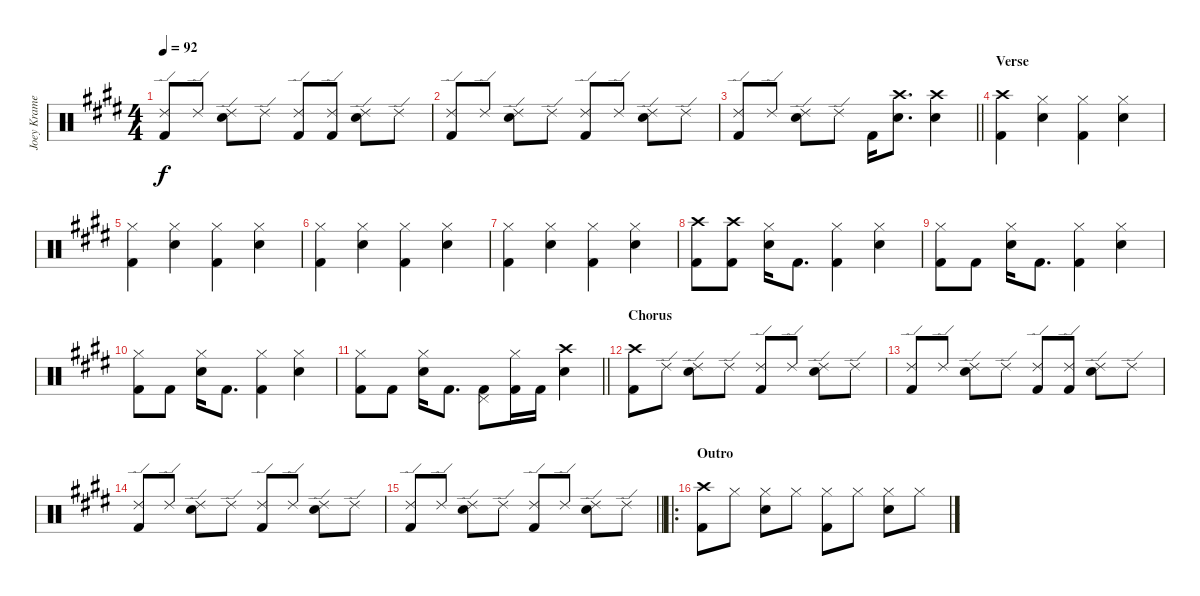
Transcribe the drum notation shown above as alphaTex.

\track ("Joey Kramer" "Joey Krame") {instrument percussion}
\staff {score}
\articulation defaults
\ts (4 4)
\tempo 92
\clef neutral
\ks e
("Ride (edge) 2" "Kick (hit) 2").8{dy f} "Ride (edge) 2".8 ("Ride (edge) 2" "Electric Snare (hit)").8 "Ride (edge) 2".8 ("Ride (edge) 2" "Kick (hit) 2").8 ("Ride (edge) 2" "Kick (hit) 2").8 ("Ride (edge) 2" "Electric Snare (hit)").8 "Ride (edge) 2".8 |
("Ride (edge) 2" "Kick (hit) 2").8 "Ride (edge) 2".8 ("Ride (edge) 2" "Electric Snare (hit)").8 "Ride (edge) 2".8 ("Ride (edge) 2" "Kick (hit) 2").8 "Ride (edge) 2".8 ("Ride (edge) 2" "Electric Snare (hit)").8 "Ride (edge) 2".8 |
\barLineRight lightlight
("Ride (edge) 2" "Kick (hit) 2").8 "Ride (edge) 2".8 ("Ride (edge) 2" "Electric Snare (hit)").8 "Ride (edge) 2".8 "Kick (hit) 2".16 ("Crash high (hit)" "Electric Snare (hit)").8{d} ("Crash high (hit)" "Electric Snare (hit)").4 |
\section ("" "Verse")
("Crash high (hit)" "Kick (hit) 2").4 ("Hi-Hat (closed)" "Electric Snare (hit)").4 ("Hi-Hat (closed)" "Kick (hit) 2").4 ("Hi-Hat (closed)" "Electric Snare (hit)").4 |
("Hi-Hat (closed)" "Kick (hit) 2").4 ("Hi-Hat (closed)" "Electric Snare (hit)").4 ("Hi-Hat (closed)" "Kick (hit) 2").4 ("Hi-Hat (closed)" "Electric Snare (hit)").4 |
("Hi-Hat (closed)" "Kick (hit) 2").4 ("Hi-Hat (closed)" "Electric Snare (hit)").4 ("Hi-Hat (closed)" "Kick (hit) 2").4 ("Hi-Hat (closed)" "Electric Snare (hit)").4 |
("Hi-Hat (closed)" "Kick (hit) 2").4 ("Hi-Hat (closed)" "Electric Snare (hit)").4 ("Hi-Hat (closed)" "Kick (hit) 2").4 ("Hi-Hat (closed)" "Electric Snare (hit)").4 |
("Crash high (hit)" "Kick (hit) 2").8 ("Crash high (hit)" "Kick (hit) 2").8 ("Hi-Hat (closed)" "Electric Snare (hit)").16 "Kick (hit) 2".8{d} ("Hi-Hat (closed)" "Kick (hit) 2").4 ("Hi-Hat (closed)" "Electric Snare (hit)").4 |
("Hi-Hat (closed)" "Kick (hit) 2").8 "Kick (hit) 2".8 ("Hi-Hat (closed)" "Electric Snare (hit)").16 "Kick (hit) 2".8{d} ("Hi-Hat (closed)" "Kick (hit) 2").4 ("Hi-Hat (closed)" "Electric Snare (hit)").4 |
("Hi-Hat (closed)" "Kick (hit) 2").8 "Kick (hit) 2".8 ("Hi-Hat (closed)" "Electric Snare (hit)").16 "Kick (hit) 2".8{d} ("Hi-Hat (closed)" "Kick (hit) 2").4 ("Hi-Hat (closed)" "Electric Snare (hit)").4 |
\barLineRight lightlight
("Hi-Hat (closed)" "Kick (hit) 2").8 "Kick (hit) 2".8 ("Hi-Hat (closed)" "Electric Snare (hit)").16 "Kick (hit) 2".8{d} ("Pedal Hi-Hat (hit)" "Kick (hit) 2").8 ("Hi-Hat (closed)" "Kick (hit) 2").16 "Kick (hit) 2".16 ("Crash high (hit)" "Electric Snare (hit)").4 |
\section ("" "Chorus")
("Crash high (hit)" "Kick (hit) 2").8 "Ride (edge) 2".8 ("Ride (edge) 2" "Electric Snare (hit)").8 "Ride (edge) 2".8 ("Ride (edge) 2" "Kick (hit) 2").8 "Ride (edge) 2".8 ("Ride (edge) 2" "Electric Snare (hit)").8 "Ride (edge) 2".8 |
("Ride (edge) 2" "Kick (hit) 2").8 "Ride (edge) 2".8 ("Ride (edge) 2" "Electric Snare (hit)").8 "Ride (edge) 2".8 ("Ride (edge) 2" "Kick (hit) 2").8 ("Ride (edge) 2" "Kick (hit) 2").8 ("Ride (edge) 2" "Electric Snare (hit)").8 "Ride (edge) 2".8 |
("Ride (edge) 2" "Kick (hit) 2").8 "Ride (edge) 2".8 ("Ride (edge) 2" "Electric Snare (hit)").8 "Ride (edge) 2".8 ("Ride (edge) 2" "Kick (hit) 2").8 "Ride (edge) 2".8 ("Ride (edge) 2" "Electric Snare (hit)").8 "Ride (edge) 2".8 |
\barLineRight lightlight
("Ride (edge) 2" "Kick (hit) 2").8 "Ride (edge) 2".8 ("Ride (edge) 2" "Electric Snare (hit)").8 "Ride (edge) 2".8 ("Ride (edge) 2" "Kick (hit) 2").8 "Ride (edge) 2".8 ("Ride (edge) 2" "Electric Snare (hit)").8 "Ride (edge) 2".8 |
\ro
\section ("" "Outro")
("Crash high (hit)" "Kick (hit) 2").8 "Hi-Hat (closed)".8 ("Hi-Hat (closed)" "Electric Snare (hit)").8 "Hi-Hat (closed)".8 ("Hi-Hat (closed)" "Kick (hit) 2").8 "Hi-Hat (closed)".8 ("Hi-Hat (closed)" "Electric Snare (hit)").8 "Hi-Hat (closed)".8
